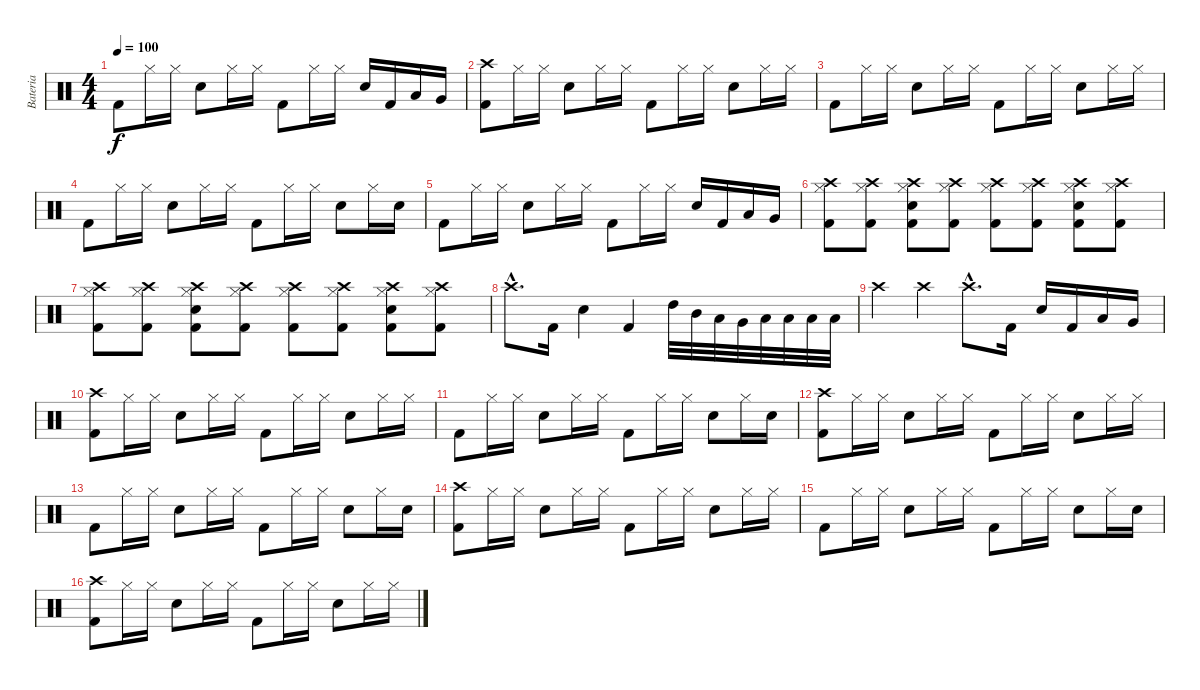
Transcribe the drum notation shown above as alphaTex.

\track ("Bateria" "Bateria") {instrument percussion}
\staff {score}
\articulation defaults
\ts (4 4)
\tempo 100
\clef neutral
\ks c "Kick (hit) 2".8{dy f} "Hi-Hat (closed)".16 "Hi-Hat (closed)".16 "Electric Snare (hit)".8 "Hi-Hat (closed)".16 "Hi-Hat (closed)".16 "Kick (hit) 2".8 "Hi-Hat (closed)".16 "Hi-Hat (closed)".16 "Electric Snare (hit)".16 "Kick (hit) 2".16 "Low Tom (hit)".16 "Very Low Tom (hit)".16
|
("Crash high (hit)" "Kick (hit) 2").8 "Hi-Hat (closed)".16 "Hi-Hat (closed)".16 "Electric Snare (hit)".8 "Hi-Hat (closed)".16 "Hi-Hat (closed)".16 "Kick (hit) 2".8 "Hi-Hat (closed)".16 "Hi-Hat (closed)".16 "Electric Snare (hit)".8 "Hi-Hat (closed)".16 "Hi-Hat (closed)".16 |
"Kick (hit) 2".8 "Hi-Hat (closed)".16 "Hi-Hat (closed)".16 "Electric Snare (hit)".8 "Hi-Hat (closed)".16 "Hi-Hat (closed)".16 "Kick (hit) 2".8 "Hi-Hat (closed)".16 "Hi-Hat (closed)".16 "Electric Snare (hit)".8 "Hi-Hat (closed)".16 "Hi-Hat (closed)".16 |
"Kick (hit) 2".8 "Hi-Hat (closed)".16 "Hi-Hat (closed)".16 "Electric Snare (hit)".8 "Hi-Hat (closed)".16 "Hi-Hat (closed)".16 "Kick (hit) 2".8 "Hi-Hat (closed)".16 "Hi-Hat (closed)".16 "Electric Snare (hit)".8 "Hi-Hat (closed)".16 "Electric Snare (hit)".16 |
"Kick (hit) 2".8 "Hi-Hat (closed)".16 "Hi-Hat (closed)".16 "Electric Snare (hit)".8 "Hi-Hat (closed)".16 "Hi-Hat (closed)".16 "Kick (hit) 2".8 "Hi-Hat (closed)".16 "Hi-Hat (closed)".16 "Electric Snare (hit)".16 "Kick (hit) 2".16 "Low Tom (hit)".16 "Very Low Tom (hit)".16 |
("Crash high (hit)" "Hi-Hat (closed)" "Kick (hit) 2").8 ("Crash high (hit)" "Hi-Hat (closed)" "Kick (hit) 2").8 ("Crash high (hit)" "Electric Snare (hit)" "Hi-Hat (closed)" "Kick (hit) 2").8 ("Crash high (hit)" "Hi-Hat (closed)" "Kick (hit) 2").8 ("Crash high (hit)" "Hi-Hat (closed)" "Kick (hit) 2").8 ("Crash high (hit)" "Hi-Hat (closed)" "Kick (hit) 2").8 ("Crash high (hit)" "Electric Snare (hit)" "Hi-Hat (closed)" "Kick (hit) 2").8 ("Crash high (hit)" "Hi-Hat (closed)" "Kick (hit) 2").8 |
("Crash high (hit)" "Hi-Hat (closed)" "Kick (hit) 2").8 ("Crash high (hit)" "Hi-Hat (closed)" "Kick (hit) 2").8 ("Crash high (hit)" "Electric Snare (hit)" "Hi-Hat (closed)" "Kick (hit) 2").8 ("Crash high (hit)" "Hi-Hat (closed)" "Kick (hit) 2").8 ("Crash high (hit)" "Hi-Hat (closed)" "Kick (hit) 2").8 ("Crash high (hit)" "Hi-Hat (closed)" "Kick (hit) 2").8 ("Crash high (hit)" "Electric Snare (hit)" "Hi-Hat (closed)" "Kick (hit) 2").8 ("Crash high (hit)" "Hi-Hat (closed)" "Kick (hit) 2").8 |
"Crash high (hit)"{hac}.8{d} "Kick (hit) 2".16 "Electric Snare (hit)".4 "Kick (hit) 2".4 "High Tom (hit)".32 "Mid Tom (hit)".32 "Low Tom (hit)".32 "Very Low Tom (hit)".32 "Low Floor Tom (hit)".32 "Low Floor Tom (hit)".32 "Low Floor Tom (hit)".32 "Low Floor Tom (hit)".32 |
"Crash high (hit)".4 "Crash high (hit)".4 "Crash high (hit)"{hac}.8{d} "Kick (hit) 2".16 "Electric Snare (hit)".16 "Kick (hit) 2".16 "Low Tom (hit)".16 "Very Low Tom (hit)".16 |
("Crash high (hit)" "Kick (hit) 2").8 "Hi-Hat (closed)".16 "Hi-Hat (closed)".16 "Electric Snare (hit)".8 "Hi-Hat (closed)".16 "Hi-Hat (closed)".16 "Kick (hit) 2".8 "Hi-Hat (closed)".16 "Hi-Hat (closed)".16 "Electric Snare (hit)".8 "Hi-Hat (closed)".16 "Hi-Hat (closed)".16 |
"Kick (hit) 2".8 "Hi-Hat (closed)".16 "Hi-Hat (closed)".16 "Electric Snare (hit)".8 "Hi-Hat (closed)".16 "Hi-Hat (closed)".16 "Kick (hit) 2".8 "Hi-Hat (closed)".16 "Hi-Hat (closed)".16 "Electric Snare (hit)".8 "Hi-Hat (closed)".16 "Electric Snare (hit)".16 |
("Crash high (hit)" "Kick (hit) 2").8 "Hi-Hat (closed)".16 "Hi-Hat (closed)".16 "Electric Snare (hit)".8 "Hi-Hat (closed)".16 "Hi-Hat (closed)".16 "Kick (hit) 2".8 "Hi-Hat (closed)".16 "Hi-Hat (closed)".16 "Electric Snare (hit)".8 "Hi-Hat (closed)".16 "Hi-Hat (closed)".16 |
"Kick (hit) 2".8 "Hi-Hat (closed)".16 "Hi-Hat (closed)".16 "Electric Snare (hit)".8 "Hi-Hat (closed)".16 "Hi-Hat (closed)".16 "Kick (hit) 2".8 "Hi-Hat (closed)".16 "Hi-Hat (closed)".16 "Electric Snare (hit)".8 "Hi-Hat (closed)".16 "Electric Snare (hit)".16 |
("Crash high (hit)" "Kick (hit) 2").8 "Hi-Hat (closed)".16 "Hi-Hat (closed)".16 "Electric Snare (hit)".8 "Hi-Hat (closed)".16 "Hi-Hat (closed)".16 "Kick (hit) 2".8 "Hi-Hat (closed)".16 "Hi-Hat (closed)".16 "Electric Snare (hit)".8 "Hi-Hat (closed)".16 "Hi-Hat (closed)".16 |
"Kick (hit) 2".8 "Hi-Hat (closed)".16 "Hi-Hat (closed)".16 "Electric Snare (hit)".8 "Hi-Hat (closed)".16 "Hi-Hat (closed)".16 "Kick (hit) 2".8 "Hi-Hat (closed)".16 "Hi-Hat (closed)".16 "Electric Snare (hit)".8 "Hi-Hat (closed)".16 "Electric Snare (hit)".16 |
("Crash high (hit)" "Kick (hit) 2").8 "Hi-Hat (closed)".16 "Hi-Hat (closed)".16 "Electric Snare (hit)".8 "Hi-Hat (closed)".16 "Hi-Hat (closed)".16 "Kick (hit) 2".8 "Hi-Hat (closed)".16 "Hi-Hat (closed)".16 "Electric Snare (hit)".8 "Hi-Hat (closed)".16 "Hi-Hat (closed)".16
